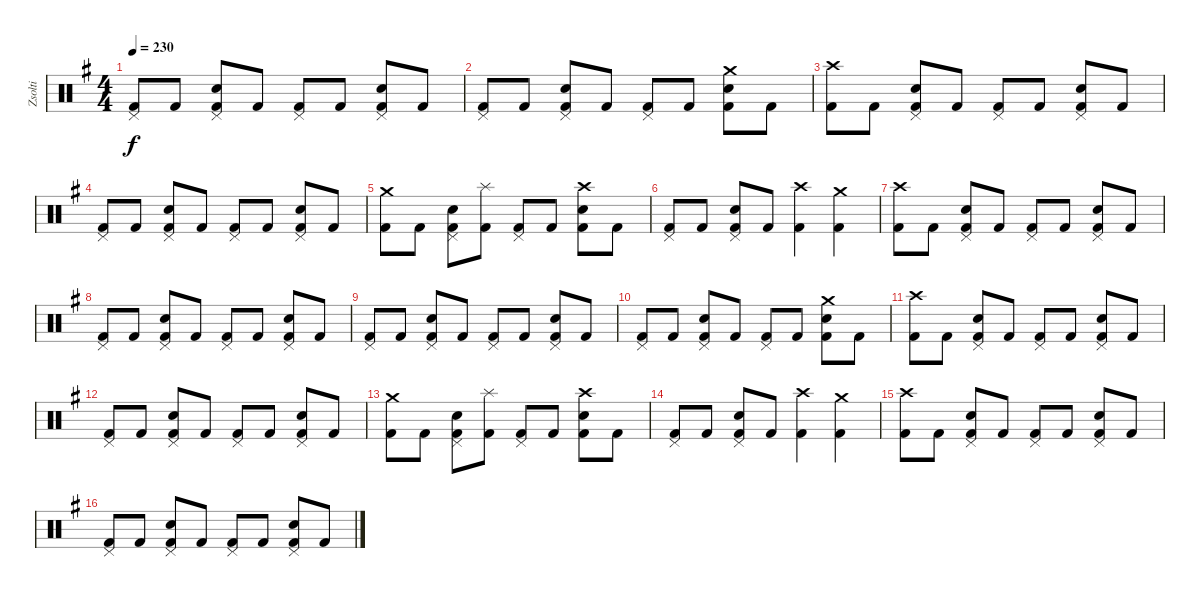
\track ("Zsolti" "Zsolti") {instrument percussion}
\staff {score}
\articulation defaults
\ts (4 4)
\tempo 230
\clef neutral
\ks eminor
("Pedal Hi-Hat (hit)" "Kick (hit) 2").8{dy f} "Kick (hit) 2".8 ("Pedal Hi-Hat (hit)" "Snare (hit) 2" "Kick (hit) 2").8 "Kick (hit) 2".8 ("Pedal Hi-Hat (hit)" "Kick (hit) 2").8 "Kick (hit) 2".8 ("Pedal Hi-Hat (hit)" "Snare (hit) 2" "Kick (hit) 2").8 "Kick (hit) 2".8 |
("Pedal Hi-Hat (hit)" "Kick (hit) 2").8 "Kick (hit) 2".8 ("Pedal Hi-Hat (hit)" "Snare (hit) 2" "Kick (hit) 2").8 "Kick (hit) 2".8 ("Pedal Hi-Hat (hit)" "Kick (hit) 2").8 "Kick (hit) 2".8 ("Crash medium (hit)" "Snare (hit) 2" "Kick (hit) 2").8 "Kick (hit) 2".8 |
("Crash high (hit)" "Kick (hit) 2").8 "Kick (hit) 2".8 ("Pedal Hi-Hat (hit)" "Snare (hit) 2" "Kick (hit) 2").8 "Kick (hit) 2".8 ("Pedal Hi-Hat (hit)" "Kick (hit) 2").8 "Kick (hit) 2".8 ("Pedal Hi-Hat (hit)" "Snare (hit) 2" "Kick (hit) 2").8 "Kick (hit) 2".8 |
("Pedal Hi-Hat (hit)" "Kick (hit) 2").8 "Kick (hit) 2".8 ("Pedal Hi-Hat (hit)" "Snare (hit) 2" "Kick (hit) 2").8 "Kick (hit) 2".8 ("Pedal Hi-Hat (hit)" "Kick (hit) 2").8 "Kick (hit) 2".8 ("Pedal Hi-Hat (hit)" "Snare (hit) 2" "Kick (hit) 2").8 "Kick (hit) 2".8 |
("Crash medium (hit)" "Kick (hit) 2").8 "Kick (hit) 2".8 ("Pedal Hi-Hat (hit)" "Snare (hit) 2" "Kick (hit) 2").8 ("Splash (hit)" "Kick (hit) 2").8 ("Pedal Hi-Hat (hit)" "Kick (hit) 2").8 "Kick (hit) 2".8 ("Crash high (hit)" "Snare (hit) 2" "Kick (hit) 2").8 "Kick (hit) 2".8 |
("Pedal Hi-Hat (hit)" "Kick (hit) 2").8 "Kick (hit) 2".8 ("Pedal Hi-Hat (hit)" "Snare (hit) 2" "Kick (hit) 2").8 "Kick (hit) 2".8 ("Crash high (hit)" "Kick (hit) 2").4 ("Crash medium (hit)" "Kick (hit) 2").4 |
("Crash high (hit)" "Kick (hit) 2").8 "Kick (hit) 2".8 ("Pedal Hi-Hat (hit)" "Snare (hit) 2" "Kick (hit) 2").8 "Kick (hit) 2".8 ("Pedal Hi-Hat (hit)" "Kick (hit) 2").8 "Kick (hit) 2".8 ("Pedal Hi-Hat (hit)" "Snare (hit) 2" "Kick (hit) 2").8 "Kick (hit) 2".8 |
("Pedal Hi-Hat (hit)" "Kick (hit) 2").8 "Kick (hit) 2".8 ("Pedal Hi-Hat (hit)" "Snare (hit) 2" "Kick (hit) 2").8 "Kick (hit) 2".8 ("Pedal Hi-Hat (hit)" "Kick (hit) 2").8 "Kick (hit) 2".8 ("Pedal Hi-Hat (hit)" "Snare (hit) 2" "Kick (hit) 2").8 "Kick (hit) 2".8 |
("Pedal Hi-Hat (hit)" "Kick (hit) 2").8 "Kick (hit) 2".8 ("Pedal Hi-Hat (hit)" "Snare (hit) 2" "Kick (hit) 2").8 "Kick (hit) 2".8 ("Pedal Hi-Hat (hit)" "Kick (hit) 2").8 "Kick (hit) 2".8 ("Pedal Hi-Hat (hit)" "Snare (hit) 2" "Kick (hit) 2").8 "Kick (hit) 2".8 |
("Pedal Hi-Hat (hit)" "Kick (hit) 2").8 "Kick (hit) 2".8 ("Pedal Hi-Hat (hit)" "Snare (hit) 2" "Kick (hit) 2").8 "Kick (hit) 2".8 ("Pedal Hi-Hat (hit)" "Kick (hit) 2").8 "Kick (hit) 2".8 ("Crash medium (hit)" "Snare (hit) 2" "Kick (hit) 2").8 "Kick (hit) 2".8 |
("Crash high (hit)" "Kick (hit) 2").8 "Kick (hit) 2".8 ("Pedal Hi-Hat (hit)" "Snare (hit) 2" "Kick (hit) 2").8 "Kick (hit) 2".8 ("Pedal Hi-Hat (hit)" "Kick (hit) 2").8 "Kick (hit) 2".8 ("Pedal Hi-Hat (hit)" "Snare (hit) 2" "Kick (hit) 2").8 "Kick (hit) 2".8 |
("Pedal Hi-Hat (hit)" "Kick (hit) 2").8 "Kick (hit) 2".8 ("Pedal Hi-Hat (hit)" "Snare (hit) 2" "Kick (hit) 2").8 "Kick (hit) 2".8 ("Pedal Hi-Hat (hit)" "Kick (hit) 2").8 "Kick (hit) 2".8 ("Pedal Hi-Hat (hit)" "Snare (hit) 2" "Kick (hit) 2").8 "Kick (hit) 2".8 |
("Crash medium (hit)" "Kick (hit) 2").8 "Kick (hit) 2".8 ("Pedal Hi-Hat (hit)" "Snare (hit) 2" "Kick (hit) 2").8 ("Splash (hit)" "Kick (hit) 2").8 ("Pedal Hi-Hat (hit)" "Kick (hit) 2").8 "Kick (hit) 2".8 ("Crash high (hit)" "Snare (hit) 2" "Kick (hit) 2").8 "Kick (hit) 2".8 |
("Pedal Hi-Hat (hit)" "Kick (hit) 2").8 "Kick (hit) 2".8 ("Pedal Hi-Hat (hit)" "Snare (hit) 2" "Kick (hit) 2").8 "Kick (hit) 2".8 ("Crash high (hit)" "Kick (hit) 2").4 ("Crash medium (hit)" "Kick (hit) 2").4 |
("Crash high (hit)" "Kick (hit) 2").8 "Kick (hit) 2".8 ("Pedal Hi-Hat (hit)" "Snare (hit) 2" "Kick (hit) 2").8 "Kick (hit) 2".8 ("Pedal Hi-Hat (hit)" "Kick (hit) 2").8 "Kick (hit) 2".8 ("Pedal Hi-Hat (hit)" "Snare (hit) 2" "Kick (hit) 2").8 "Kick (hit) 2".8 |
("Pedal Hi-Hat (hit)" "Kick (hit) 2").8 "Kick (hit) 2".8 ("Pedal Hi-Hat (hit)" "Snare (hit) 2" "Kick (hit) 2").8 "Kick (hit) 2".8 ("Pedal Hi-Hat (hit)" "Kick (hit) 2").8 "Kick (hit) 2".8 ("Pedal Hi-Hat (hit)" "Snare (hit) 2" "Kick (hit) 2").8 "Kick (hit) 2".8
